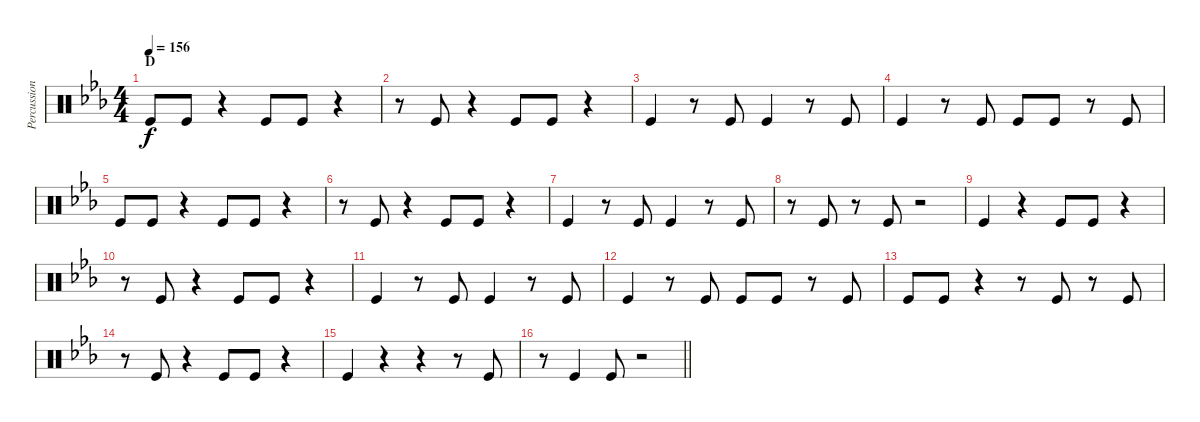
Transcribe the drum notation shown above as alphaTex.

\track ("Percussion foot" "Percussion") {instrument percussion}
\staff {score}
\articulation defaults
\ts (4 4)
\section ("" "D")
\tempo 156
\clef neutral
\ks eb "Kick (hit)".8{dy f} "Kick (hit)".8
r.4 "Kick (hit)".8 "Kick (hit)".8 r.4 |
r.8 "Kick (hit)".8 r.4 "Kick (hit)".8 "Kick (hit)".8 r.4 |
"Kick (hit)".4 r.8 "Kick (hit)".8 "Kick (hit)".4 r.8 "Kick (hit)".8 |
"Kick (hit)".4 r.8 "Kick (hit)".8 "Kick (hit)".8 "Kick (hit)".8 r.8 "Kick (hit)".8 |
"Kick (hit)".8 "Kick (hit)".8 r.4 "Kick (hit)".8 "Kick (hit)".8 r.4 |
r.8 "Kick (hit)".8 r.4 "Kick (hit)".8 "Kick (hit)".8 r.4 |
"Kick (hit)".4 r.8 "Kick (hit)".8 "Kick (hit)".4 r.8 "Kick (hit)".8 |
r.8 "Kick (hit)".8 r.8 "Kick (hit)".8 r.2 |
"Kick (hit)".4 r.4 "Kick (hit)".8 "Kick (hit)".8 r.4 |
r.8 "Kick (hit)".8 r.4 "Kick (hit)".8 "Kick (hit)".8 r.4 |
"Kick (hit)".4 r.8 "Kick (hit)".8 "Kick (hit)".4 r.8 "Kick (hit)".8 |
"Kick (hit)".4 r.8 "Kick (hit)".8 "Kick (hit)".8 "Kick (hit)".8 r.8 "Kick (hit)".8 |
"Kick (hit)".8 "Kick (hit)".8 r.4 r.8 "Kick (hit)".8 r.8 "Kick (hit)".8 |
r.8 "Kick (hit)".8 r.4 "Kick (hit)".8 "Kick (hit)".8 r.4 |
"Kick (hit)".4 r.4 r.4 r.8 "Kick (hit)".8 |
\barLineRight lightlight
r.8 "Kick (hit)".4 "Kick (hit)".8 r.2
